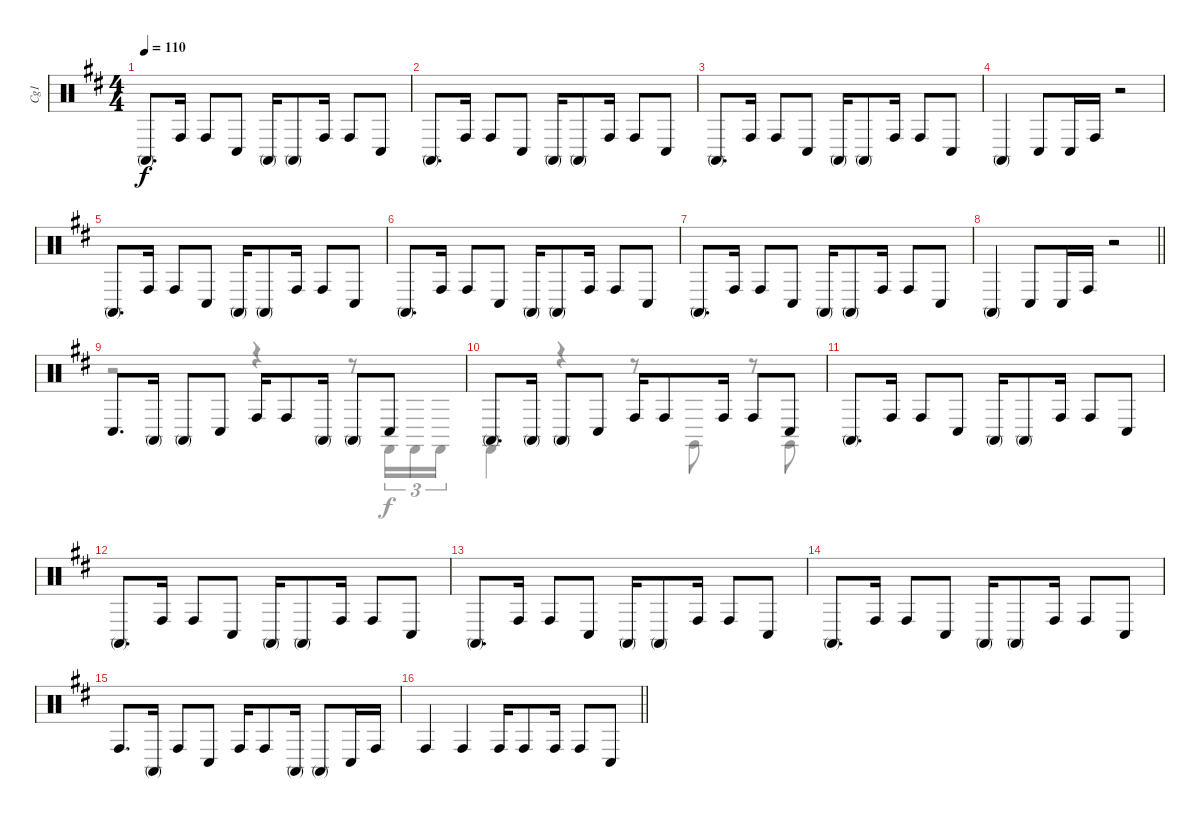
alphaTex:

\track ("Cg1" "Cg1") {instrument percussion}
\staff {score}
\articulation defaults
\voice
\ts (4 4)
\tempo 110
\clef neutral
\ks d "Conga high (mute)".8{d dy f} "Conga high (hit)".16 "Conga high (hit)".8 "Conga low (hit)".8 "Conga high (mute)".16 "Conga high (mute)".8 "Conga high (hit)".16 "Conga high (hit)".8 "Conga low (hit)".8
|
"Conga high (mute)".8{d} "Conga high (hit)".16 "Conga high (hit)".8 "Conga low (hit)".8 "Conga high (mute)".16 "Conga high (mute)".8 "Conga high (hit)".16 "Conga high (hit)".8 "Conga low (hit)".8 |
"Conga high (mute)".8{d} "Conga high (hit)".16 "Conga high (hit)".8 "Conga low (hit)".8 "Conga high (mute)".16 "Conga high (mute)".8 "Conga high (hit)".16 "Conga high (hit)".8 "Conga low (hit)".8 |
"Conga high (mute)".4 "Conga low (hit)".8 "Conga low (hit)".16 "Conga high (hit)".16 r.2 |
"Conga high (mute)".8{d} "Conga high (hit)".16 "Conga high (hit)".8 "Conga low (hit)".8 "Conga high (mute)".16 "Conga high (mute)".8 "Conga high (hit)".16 "Conga high (hit)".8 "Conga low (hit)".8 |
"Conga high (mute)".8{d} "Conga high (hit)".16 "Conga high (hit)".8 "Conga low (hit)".8 "Conga high (mute)".16 "Conga high (mute)".8 "Conga high (hit)".16 "Conga high (hit)".8 "Conga low (hit)".8 |
"Conga high (mute)".8{d} "Conga high (hit)".16 "Conga high (hit)".8 "Conga low (hit)".8 "Conga high (mute)".16 "Conga high (mute)".8 "Conga high (hit)".16 "Conga high (hit)".8 "Conga low (hit)".8 |
\barLineRight lightlight "Conga high (mute)".4 "Conga low (hit)".8 "Conga low (hit)".16 "Conga high (hit)".16
r.2 |
"Conga low (hit)".8{d} "Conga high (mute)".16 "Conga high (mute)".8 "Conga low (hit)".8 "Conga high (hit)".16 "Conga high (hit)".8 "Conga high (mute)".16 "Conga high (mute)".8 "Conga low (hit)".8 |
"Conga high (mute)".8{d} "Conga high (mute)".16 "Conga high (mute)".8 "Conga low (hit)".8 "Conga high (hit)".16 "Conga high (hit)".8 "Conga high (hit)".16 "Conga high (hit)".8 "Conga low (hit)".8 |
"Conga high (mute)".8{d} "Conga high (hit)".16 "Conga high (hit)".8 "Conga low (hit)".8 "Conga high (mute)".16 "Conga high (mute)".8 "Conga high (hit)".16 "Conga high (hit)".8 "Conga low (hit)".8 |
"Conga high (mute)".8{d} "Conga high (hit)".16 "Conga high (hit)".8 "Conga low (hit)".8 "Conga high (mute)".16 "Conga high (mute)".8 "Conga high (hit)".16 "Conga high (hit)".8 "Conga low (hit)".8 |
"Conga high (mute)".8{d} "Conga high (hit)".16 "Conga high (hit)".8 "Conga low (hit)".8 "Conga high (mute)".16 "Conga high (mute)".8 "Conga high (hit)".16 "Conga high (hit)".8 "Conga low (hit)".8 |
"Conga high (mute)".8{d} "Conga high (hit)".16 "Conga high (hit)".8 "Conga low (hit)".8 "Conga high (mute)".16 "Conga high (mute)".8 "Conga high (hit)".16 "Conga high (hit)".8 "Conga low (hit)".8 |
"Conga high (hit)".8{d} "Conga high (mute)".16 "Conga high (hit)".8 "Conga low (hit)".8 "Conga high (hit)".16 "Conga high (hit)".8 "Conga high (mute)".16 "Conga high (mute)".8 "Conga low (hit)".16 "Conga high (hit)".16 |
\barLineRight lightlight "Conga high (hit)".4 "Conga high (hit)".4 "Conga high (hit)".16 "Conga high (hit)".8 "Conga high (hit)".16 "Conga high (hit)".8 "Conga low (hit)".8
\voice
\clef neutral
\ottava regular
\simile none
\ks d
|
|
|
|
|
|
|
\barLineRight lightlight
|
r.2 r.4 r.8 "Castanets (hit)".16{tu (3 2)} "Castanets (hit)".16{tu (3 2)} "Castanets (hit)".16{tu (3 2)} |
"Castanets (hit)".4 r.4 r.8 "Claves (hit)".8 r.8 "Claves (hit)".8 |
|
|
|
|
|
\barLineRight lightlight
